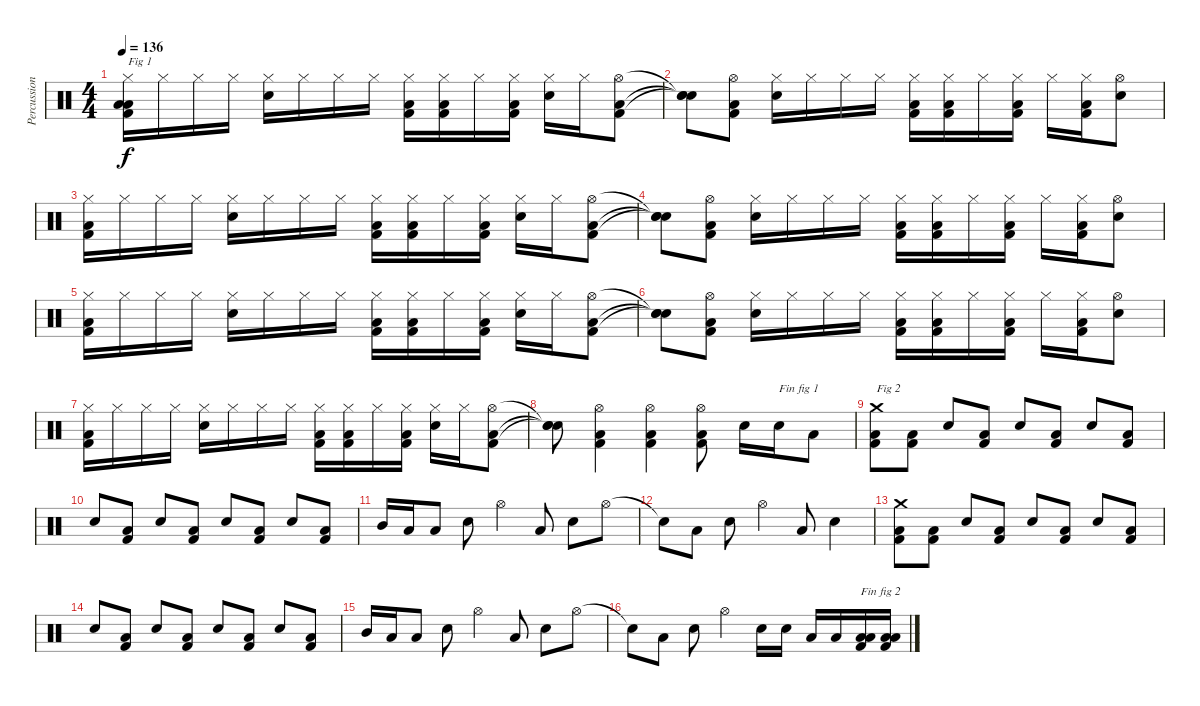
\track ("Percussions" "Percussion") {instrument percussion}
\staff {score}
\articulation defaults
\ts (4 4)
\tempo 136
\clef neutral
\ks c
("Kick (hit) 2" "Low Floor Tom (hit)" "Low Tom (hit)" "Hi-Hat (closed)").16{txt "Fig 1" dy f} "Hi-Hat (closed)".16 "Hi-Hat (closed)".16 "Hi-Hat (closed)".16 ("Snare (hit) 2" "Hi-Hat (closed)").16 "Hi-Hat (closed)".16 "Hi-Hat (closed)".16 "Hi-Hat (closed)".16 ("Kick (hit) 2" "Low Floor Tom (hit)" "Hi-Hat (closed)").16 ("Kick (hit) 2" "Low Floor Tom (hit)" "Hi-Hat (closed)").16 "Hi-Hat (closed)".16 ("Kick (hit) 2" "Low Floor Tom (hit)" "Hi-Hat (closed)").16 ("Snare (hit) 2" "Hi-Hat (closed)").16 "Hi-Hat (closed)".16 ("Kick (hit) 2" "Low Floor Tom (hit)" "Hi-Hat (open)").8 |
("Snare (hit)"{t} "Snare (hit)"{t} "Snare (hit)"{t}).8 ("Kick (hit) 2" "Low Floor Tom (hit)" "Hi-Hat (open)").8 ("Snare (hit) 2" "Hi-Hat (closed)").16 "Hi-Hat (closed)".16 "Hi-Hat (closed)".16 "Hi-Hat (closed)".16 ("Kick (hit) 2" "Low Floor Tom (hit)" "Hi-Hat (closed)").16 ("Kick (hit) 2" "Low Floor Tom (hit)" "Hi-Hat (closed)").16 "Hi-Hat (closed)".16 ("Kick (hit) 2" "Low Floor Tom (hit)" "Hi-Hat (closed)").16 "Hi-Hat (closed)".16 ("Kick (hit) 2" "Low Floor Tom (hit)" "Hi-Hat (closed)").16 ("Snare (hit) 2" "Hi-Hat (open)").8 |
("Kick (hit) 2" "Low Floor Tom (hit)" "Hi-Hat (closed)").16 "Hi-Hat (closed)".16 "Hi-Hat (closed)".16 "Hi-Hat (closed)".16 ("Snare (hit) 2" "Hi-Hat (closed)").16 "Hi-Hat (closed)".16 "Hi-Hat (closed)".16 "Hi-Hat (closed)".16 ("Kick (hit) 2" "Low Floor Tom (hit)" "Hi-Hat (closed)").16 ("Kick (hit) 2" "Low Floor Tom (hit)" "Hi-Hat (closed)").16 "Hi-Hat (closed)".16 ("Kick (hit) 2" "Low Floor Tom (hit)" "Hi-Hat (closed)").16 ("Snare (hit) 2" "Hi-Hat (closed)").16 "Hi-Hat (closed)".16 ("Kick (hit) 2" "Low Floor Tom (hit)" "Hi-Hat (open)").8 |
("Snare (hit)"{t} "Snare (hit)"{t} "Snare (hit)"{t}).8 ("Kick (hit) 2" "Low Floor Tom (hit)" "Hi-Hat (open)").8 ("Snare (hit) 2" "Hi-Hat (closed)").16 "Hi-Hat (closed)".16 "Hi-Hat (closed)".16 "Hi-Hat (closed)".16 ("Kick (hit) 2" "Low Floor Tom (hit)" "Hi-Hat (closed)").16 ("Kick (hit) 2" "Low Floor Tom (hit)" "Hi-Hat (closed)").16 "Hi-Hat (closed)".16 ("Kick (hit) 2" "Low Floor Tom (hit)" "Hi-Hat (closed)").16 "Hi-Hat (closed)".16 ("Kick (hit) 2" "Low Floor Tom (hit)" "Hi-Hat (closed)").16 ("Snare (hit) 2" "Hi-Hat (open)").8 |
("Kick (hit) 2" "Low Floor Tom (hit)" "Hi-Hat (closed)").16 "Hi-Hat (closed)".16 "Hi-Hat (closed)".16 "Hi-Hat (closed)".16 ("Snare (hit) 2" "Hi-Hat (closed)").16 "Hi-Hat (closed)".16 "Hi-Hat (closed)".16 "Hi-Hat (closed)".16 ("Kick (hit) 2" "Low Floor Tom (hit)" "Hi-Hat (closed)").16 ("Kick (hit) 2" "Low Floor Tom (hit)" "Hi-Hat (closed)").16 "Hi-Hat (closed)".16 ("Kick (hit) 2" "Low Floor Tom (hit)" "Hi-Hat (closed)").16 ("Snare (hit) 2" "Hi-Hat (closed)").16 "Hi-Hat (closed)".16 ("Kick (hit) 2" "Low Floor Tom (hit)" "Hi-Hat (open)").8 |
("Snare (hit)"{t} "Snare (hit)"{t} "Snare (hit)"{t}).8 ("Kick (hit) 2" "Low Floor Tom (hit)" "Hi-Hat (open)").8 ("Snare (hit) 2" "Hi-Hat (closed)").16 "Hi-Hat (closed)".16 "Hi-Hat (closed)".16 "Hi-Hat (closed)".16 ("Kick (hit) 2" "Low Floor Tom (hit)" "Hi-Hat (closed)").16 ("Kick (hit) 2" "Low Floor Tom (hit)" "Hi-Hat (closed)").16 "Hi-Hat (closed)".16 ("Kick (hit) 2" "Low Floor Tom (hit)" "Hi-Hat (closed)").16 "Hi-Hat (closed)".16 ("Kick (hit) 2" "Low Floor Tom (hit)" "Hi-Hat (closed)").16 ("Snare (hit) 2" "Hi-Hat (open)").8 |
("Kick (hit) 2" "Low Floor Tom (hit)" "Hi-Hat (closed)").16 "Hi-Hat (closed)".16 "Hi-Hat (closed)".16 "Hi-Hat (closed)".16 ("Snare (hit) 2" "Hi-Hat (closed)").16 "Hi-Hat (closed)".16 "Hi-Hat (closed)".16 "Hi-Hat (closed)".16 ("Kick (hit) 2" "Low Floor Tom (hit)" "Hi-Hat (closed)").16 ("Kick (hit) 2" "Low Floor Tom (hit)" "Hi-Hat (closed)").16 "Hi-Hat (closed)".16 ("Kick (hit) 2" "Low Floor Tom (hit)" "Hi-Hat (closed)").16 ("Snare (hit) 2" "Hi-Hat (closed)").16 "Hi-Hat (closed)".16 ("Kick (hit) 2" "Low Floor Tom (hit)" "Hi-Hat (open)").8 |
("Snare (hit)"{t} "Snare (hit)"{t} "Snare (hit)"{t}).8 ("Kick (hit) 2" "Low Floor Tom (hit)" "Hi-Hat (open)").4 ("Kick (hit) 2" "Low Floor Tom (hit)" "Hi-Hat (open)").4 ("Kick (hit) 2" "Low Floor Tom (hit)" "Hi-Hat (open)").8 "Snare (hit) 2".16 "Snare (hit) 2".16{txt "Fin fig 1"} "Low Tom (hit)".8 |
("Kick (hit) 2" "Low Floor Tom (hit)" "Crash medium (hit)").8{txt "Fig 2"} ("Kick (hit) 2" "Low Floor Tom (hit)").8 "Snare (hit) 2".8 ("Kick (hit) 2" "Low Floor Tom (hit)").8 "Snare (hit) 2".8 ("Kick (hit) 2" "Low Floor Tom (hit)").8 "Snare (hit) 2".8 ("Kick (hit) 2" "Low Floor Tom (hit)").8 |
"Snare (hit) 2".8 ("Kick (hit) 2" "Low Floor Tom (hit)").8 "Snare (hit) 2".8 ("Kick (hit) 2" "Low Floor Tom (hit)").8 "Snare (hit) 2".8 ("Kick (hit) 2" "Low Floor Tom (hit)").8 "Snare (hit) 2".8 ("Kick (hit) 2" "Low Floor Tom (hit)").8 |
"Mid Tom (hit)".16 "Low Tom (hit)".16 "Low Tom (hit)".8 "Snare (hit) 2".8 "Hi-Hat (open)".4 "Low Tom (hit)".8 "Snare (hit) 2".8 "Hi-Hat (open)".8 |
"Snare (hit)"{t}.8 "Low Tom (hit)".8 "Snare (hit) 2".8 "Hi-Hat (open)".4 "Low Tom (hit)".8 "Snare (hit) 2".4 |
("Kick (hit) 2" "Low Floor Tom (hit)" "Crash medium (hit)").8 ("Kick (hit) 2" "Low Floor Tom (hit)").8 "Snare (hit) 2".8 ("Kick (hit) 2" "Low Floor Tom (hit)").8 "Snare (hit) 2".8 ("Kick (hit) 2" "Low Floor Tom (hit)").8 "Snare (hit) 2".8 ("Kick (hit) 2" "Low Floor Tom (hit)").8 |
"Snare (hit) 2".8 ("Kick (hit) 2" "Low Floor Tom (hit)").8 "Snare (hit) 2".8 ("Kick (hit) 2" "Low Floor Tom (hit)").8 "Snare (hit) 2".8 ("Kick (hit) 2" "Low Floor Tom (hit)").8 "Snare (hit) 2".8 ("Kick (hit) 2" "Low Floor Tom (hit)").8 |
"Mid Tom (hit)".16 "Low Tom (hit)".16 "Low Tom (hit)".8 "Snare (hit) 2".8 "Hi-Hat (open)".4 "Low Tom (hit)".8 "Snare (hit) 2".8 "Hi-Hat (open)".8 |
"Snare (hit)"{t}.8 "Low Tom (hit)".8 "Snare (hit) 2".8 "Hi-Hat (open)".4 "Snare (hit) 2".16 "Snare (hit) 2".16 "Low Tom (hit)".16 "Low Tom (hit)".16 ("Kick (hit) 2" "Low Floor Tom (hit)" "Low Tom (hit)").16{txt "Fin fig 2"} ("Kick (hit) 2" "Low Floor Tom (hit)" "Low Tom (hit)").16
